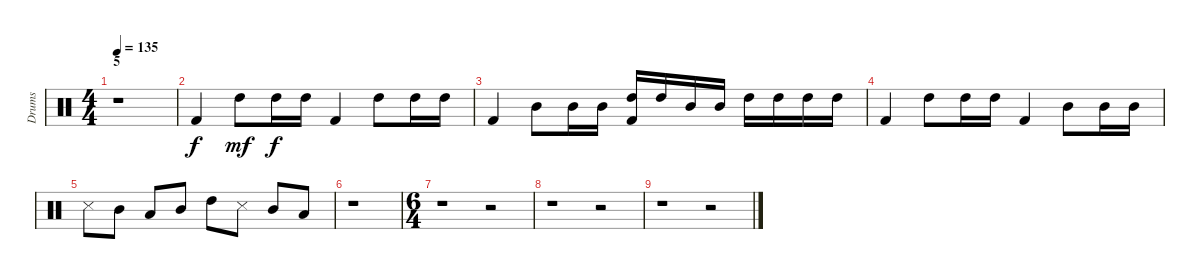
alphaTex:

\track ("Drums" "Drums") {instrument percussion}
\staff {score}
\articulation defaults
\ts (4 4)
\section ("" "5")
\tempo 135
\clef neutral
\ks c
r.1{dy f} |
"Kick (hit) 2".4 "High Tom (hit)".8{dy mf} "High Tom (hit)".16{dy f} "High Tom (hit)".16 "Kick (hit) 2".4 "High Tom (hit)".8 "High Tom (hit)".16 "High Tom (hit)".16 |
"Kick (hit) 2".4 "Mid Tom (hit)".8 "Mid Tom (hit)".16 "Mid Tom (hit)".16 ("Kick (hit) 2" "High Tom (hit)").16 "High Tom (hit)".16 "Mid Tom (hit)".16 "Mid Tom (hit)".16 "High Tom (hit)".16 "High Tom (hit)".16 "High Tom (hit)".16 "High Tom (hit)".16 |
"Kick (hit) 2".4 "High Tom (hit)".8 "High Tom (hit)".16 "High Tom (hit)".16 "Kick (hit) 2".4 "Mid Tom (hit)".8 "Mid Tom (hit)".16 "Mid Tom (hit)".16 |
"Snare (side stick) 3".8 "Mid Tom (hit)".8 "Low Tom (hit)".8 "Mid Tom (hit)".8 "High Tom (hit)".8 "Snare (side stick) 3".8 "Mid Tom (hit)".8 "Low Tom (hit)".8 |
r.1 |
\ts (6 4)
r.1 r.2 |
r.1 r.2 |
r.1 r.2
